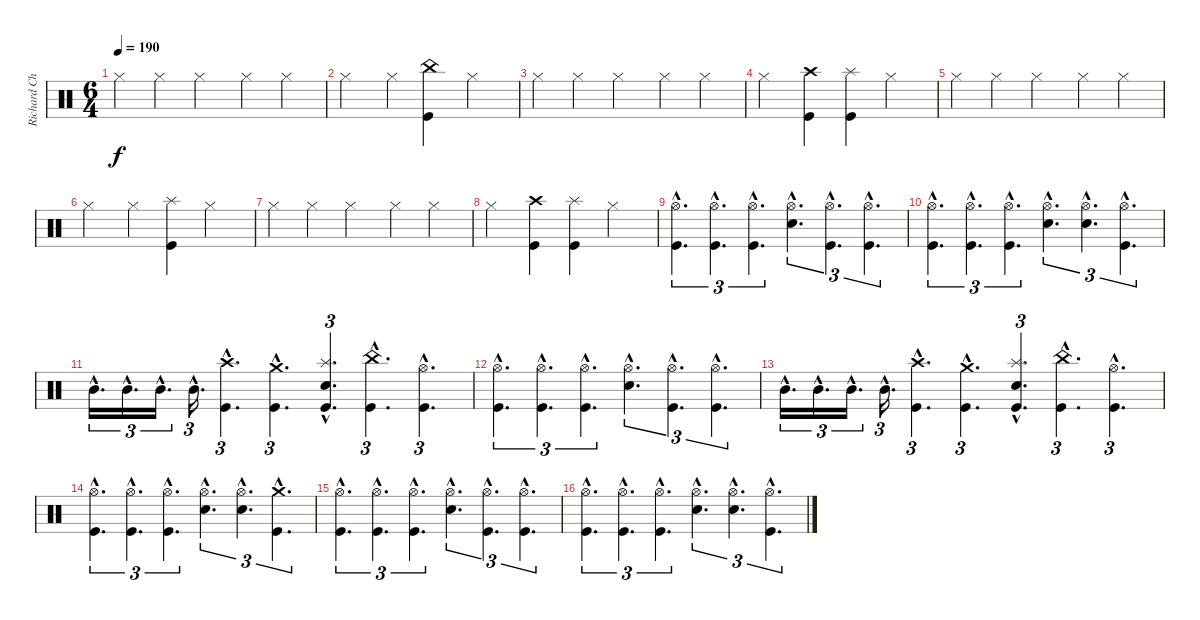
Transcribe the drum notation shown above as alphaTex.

\track ("Richard Christy" "Richard Ch") {instrument percussion}
\staff {score}
\articulation defaults
\ts (6 4)
\tempo 190
\clef neutral
\ks c "Hi-Hat (closed)".4{dy f} "Hi-Hat (closed)".4 "Hi-Hat (closed)".2 "Hi-Hat (closed)".4 "Hi-Hat (closed)".4
|
"Hi-Hat (closed)".2 "Hi-Hat (closed)".4 ("China (hit)" "Kick (hit)").4 "Hi-Hat (closed)".2 |
"Hi-Hat (closed)".4 "Hi-Hat (closed)".4 "Hi-Hat (closed)".2 "Hi-Hat (closed)".4 "Hi-Hat (closed)".4 |
"Hi-Hat (closed)".2 ("Crash high (hit)" "Kick (hit)").4 ("Splash (hit)" "Kick (hit)").4 "Hi-Hat (closed)".2 |
"Hi-Hat (closed)".4 "Hi-Hat (closed)".4 "Hi-Hat (closed)".2 "Hi-Hat (closed)".4 "Hi-Hat (closed)".4 |
"Hi-Hat (closed)".2 "Hi-Hat (closed)".4 ("Splash (hit)" "Kick (hit)").4 "Hi-Hat (closed)".2 |
"Hi-Hat (closed)".4 "Hi-Hat (closed)".4 "Hi-Hat (closed)".2 "Hi-Hat (closed)".4 "Hi-Hat (closed)".4 |
"Hi-Hat (closed)".2 ("Crash high (hit)" "Kick (hit)").4 ("Splash (hit)" "Kick (hit)").4 "Hi-Hat (closed)".2 |
("Hi-Hat (open)"{hac} "Kick (hit)"{hac}).4{d tu (3 2)} ("Hi-Hat (open)"{hac} "Kick (hit)"{hac}).4{d tu (3 2)} ("Hi-Hat (open)"{hac} "Kick (hit)"{hac}).4{d tu (3 2)} ("Hi-Hat (open)"{hac} "Electric Snare (hit)"{hac}).4{d tu (3 2)} ("Hi-Hat (open)"{hac} "Kick (hit)"{hac}).4{d tu (3 2)} ("Hi-Hat (open)"{hac} "Kick (hit)"{hac}).4{d tu (3 2)} |
("Hi-Hat (open)"{hac} "Kick (hit)"{hac}).4{d tu (3 2)} ("Hi-Hat (open)"{hac} "Kick (hit)"{hac}).4{d tu (3 2)} ("Hi-Hat (open)"{hac} "Kick (hit)"{hac}).4{d tu (3 2)} ("Hi-Hat (open)"{hac} "Electric Snare (hit)"{hac}).4{d tu (3 2)} ("Hi-Hat (open)"{hac} "Electric Snare (hit)"{hac}).4{d tu (3 2)} ("Hi-Hat (open)"{hac} "Kick (hit)"{hac}).4{d tu (3 2)} |
"Mid Tom (hit)"{hac}.16{d tu (3 2)} "Mid Tom (hit)"{hac}.16{d tu (3 2)} "Mid Tom (hit)"{hac}.16{d tu (3 2)} "Mid Tom (hit)"{hac}.16{d tu (3 2)} ("Crash high (hit)"{hac} "Kick (hit)"{hac}).4{d tu (3 2)} ("Crash medium (hit)"{hac} "Kick (hit)"{hac}).4{d tu (3 2)} ("Splash (hit)"{hac} "Electric Snare (hit)"{hac} "Kick (hit)"{hac}).4{d tu (3 2)} ("China (hit)"{hac} "Kick (hit)"{hac}).4{d tu (3 2)} ("Hi-Hat (open)"{hac} "Kick (hit)"{hac}).4{d tu (3 2)} |
("Hi-Hat (open)"{hac} "Kick (hit)"{hac}).4{d tu (3 2)} ("Hi-Hat (open)"{hac} "Kick (hit)"{hac}).4{d tu (3 2)} ("Hi-Hat (open)"{hac} "Kick (hit)"{hac}).4{d tu (3 2)} ("Hi-Hat (open)"{hac} "Electric Snare (hit)"{hac}).4{d tu (3 2)} ("Hi-Hat (open)"{hac} "Kick (hit)"{hac}).4{d tu (3 2)} ("Hi-Hat (open)"{hac} "Kick (hit)"{hac}).4{d tu (3 2)} |
"Mid Tom (hit)"{hac}.16{d tu (3 2)} "Mid Tom (hit)"{hac}.16{d tu (3 2)} "Mid Tom (hit)"{hac}.16{d tu (3 2)} "Mid Tom (hit)"{hac}.16{d tu (3 2)} ("Crash high (hit)"{hac} "Kick (hit)"{hac}).4{d tu (3 2)} ("Crash medium (hit)"{hac} "Kick (hit)"{hac}).4{d tu (3 2)} ("Splash (hit)"{hac} "Electric Snare (hit)"{hac} "Kick (hit)"{hac}).4{d tu (3 2)} ("China (hit)"{hac} "Kick (hit)"{hac}).4{d tu (3 2)} ("Hi-Hat (open)"{hac} "Kick (hit)"{hac}).4{d tu (3 2)} |
("Hi-Hat (open)"{hac} "Kick (hit)"{hac}).4{d tu (3 2)} ("Hi-Hat (open)"{hac} "Kick (hit)"{hac}).4{d tu (3 2)} ("Hi-Hat (open)"{hac} "Kick (hit)"{hac}).4{d tu (3 2)} ("Hi-Hat (open)"{hac} "Electric Snare (hit)"{hac}).4{d tu (3 2)} ("Hi-Hat (open)"{hac} "Electric Snare (hit)"{hac}).4{d tu (3 2)} ("Crash medium (hit)"{hac} "Kick (hit)"{hac}).4{d tu (3 2)} |
("Hi-Hat (open)"{hac} "Kick (hit)"{hac}).4{d tu (3 2)} ("Hi-Hat (open)"{hac} "Kick (hit)"{hac}).4{d tu (3 2)} ("Hi-Hat (open)"{hac} "Kick (hit)"{hac}).4{d tu (3 2)} ("Hi-Hat (open)"{hac} "Electric Snare (hit)"{hac}).4{d tu (3 2)} ("Hi-Hat (open)"{hac} "Kick (hit)"{hac}).4{d tu (3 2)} ("Hi-Hat (open)"{hac} "Kick (hit)"{hac}).4{d tu (3 2)} |
("Hi-Hat (open)"{hac} "Kick (hit)"{hac}).4{d tu (3 2)} ("Hi-Hat (open)"{hac} "Kick (hit)"{hac}).4{d tu (3 2)} ("Hi-Hat (open)"{hac} "Kick (hit)"{hac}).4{d tu (3 2)} ("Hi-Hat (open)"{hac} "Electric Snare (hit)"{hac}).4{d tu (3 2)} ("Hi-Hat (open)"{hac} "Electric Snare (hit)"{hac}).4{d tu (3 2)} ("Hi-Hat (open)"{hac} "Kick (hit)"{hac}).4{d tu (3 2)}
